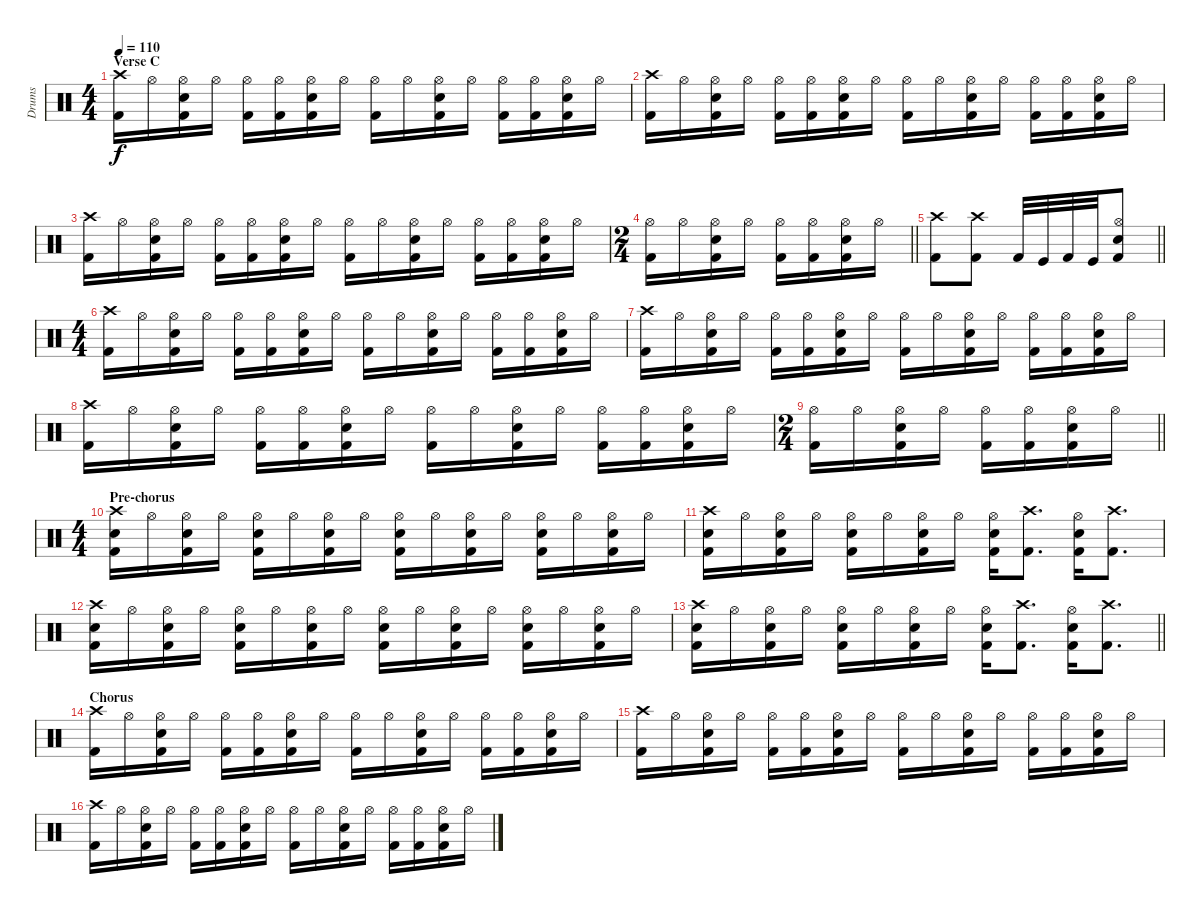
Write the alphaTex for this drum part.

\track ("Drums" "Drums") {instrument percussion}
\staff {score}
\articulation defaults
\ts (4 4)
\section ("" "Verse C")
\tempo 110
\clef neutral
\ks c
("Kick (hit) 2" "Crash high (hit)").16{dy f} "Hi-Hat (open)".16 ("Kick (hit) 2" "Snare (hit) 2" "Hi-Hat (open)").16 "Hi-Hat (open)".16 ("Kick (hit) 2" "Hi-Hat (open)").16 ("Kick (hit) 2" "Hi-Hat (open)").16 ("Kick (hit) 2" "Snare (hit) 2" "Hi-Hat (open)").16 "Hi-Hat (open)".16 ("Kick (hit) 2" "Hi-Hat (open)").16 "Hi-Hat (open)".16 ("Kick (hit) 2" "Snare (hit) 2" "Hi-Hat (open)").16 "Hi-Hat (open)".16 ("Kick (hit) 2" "Hi-Hat (open)").16 ("Kick (hit) 2" "Hi-Hat (open)").16 ("Kick (hit) 2" "Snare (hit) 2" "Hi-Hat (open)").16 "Hi-Hat (open)".16 |
("Kick (hit) 2" "Crash high (hit)").16 "Hi-Hat (open)".16 ("Kick (hit) 2" "Snare (hit) 2" "Hi-Hat (open)").16 "Hi-Hat (open)".16 ("Kick (hit) 2" "Hi-Hat (open)").16 ("Kick (hit) 2" "Hi-Hat (open)").16 ("Kick (hit) 2" "Snare (hit) 2" "Hi-Hat (open)").16 "Hi-Hat (open)".16 ("Kick (hit) 2" "Hi-Hat (open)").16 "Hi-Hat (open)".16 ("Kick (hit) 2" "Snare (hit) 2" "Hi-Hat (open)").16 "Hi-Hat (open)".16 ("Kick (hit) 2" "Hi-Hat (open)").16 ("Kick (hit) 2" "Hi-Hat (open)").16 ("Kick (hit) 2" "Snare (hit) 2" "Hi-Hat (open)").16 "Hi-Hat (open)".16 |
("Kick (hit) 2" "Crash high (hit)").16 "Hi-Hat (open)".16 ("Kick (hit) 2" "Snare (hit) 2" "Hi-Hat (open)").16 "Hi-Hat (open)".16 ("Kick (hit) 2" "Hi-Hat (open)").16 ("Kick (hit) 2" "Hi-Hat (open)").16 ("Kick (hit) 2" "Snare (hit) 2" "Hi-Hat (open)").16 "Hi-Hat (open)".16 ("Kick (hit) 2" "Hi-Hat (open)").16 "Hi-Hat (open)".16 ("Kick (hit) 2" "Snare (hit) 2" "Hi-Hat (open)").16 "Hi-Hat (open)".16 ("Kick (hit) 2" "Hi-Hat (open)").16 ("Kick (hit) 2" "Hi-Hat (open)").16 ("Kick (hit) 2" "Snare (hit) 2" "Hi-Hat (open)").16 "Hi-Hat (open)".16 |
\ts (2 4)
\barLineRight lightlight
("Kick (hit) 2" "Hi-Hat (open)").16 "Hi-Hat (open)".16 ("Kick (hit) 2" "Snare (hit) 2" "Hi-Hat (open)").16 "Hi-Hat (open)".16 ("Kick (hit) 2" "Hi-Hat (open)").16 ("Kick (hit) 2" "Hi-Hat (open)").16 ("Kick (hit) 2" "Snare (hit) 2" "Hi-Hat (open)").16 "Hi-Hat (open)".16 |
\barLineRight lightlight
("Kick (hit) 2" "Crash high (hit)").8 ("Kick (hit) 2" "Crash high (hit)").8 "Kick (hit) 2".32 "Kick (hit)".32 "Kick (hit) 2".32 "Kick (hit)".32 ("Kick (hit) 2" "Snare (hit) 2" "Hi-Hat (open)").8 |
\ts (4 4)
("Kick (hit) 2" "Crash high (hit)").16 "Hi-Hat (open)".16 ("Kick (hit) 2" "Snare (hit) 2" "Hi-Hat (open)").16 "Hi-Hat (open)".16 ("Kick (hit) 2" "Hi-Hat (open)").16 ("Kick (hit) 2" "Hi-Hat (open)").16 ("Kick (hit) 2" "Snare (hit) 2" "Hi-Hat (open)").16 "Hi-Hat (open)".16 ("Kick (hit) 2" "Hi-Hat (open)").16 "Hi-Hat (open)".16 ("Kick (hit) 2" "Snare (hit) 2" "Hi-Hat (open)").16 "Hi-Hat (open)".16 ("Kick (hit) 2" "Hi-Hat (open)").16 ("Kick (hit) 2" "Hi-Hat (open)").16 ("Kick (hit) 2" "Snare (hit) 2" "Hi-Hat (open)").16 "Hi-Hat (open)".16 |
("Kick (hit) 2" "Crash high (hit)").16 "Hi-Hat (open)".16 ("Kick (hit) 2" "Snare (hit) 2" "Hi-Hat (open)").16 "Hi-Hat (open)".16 ("Kick (hit) 2" "Hi-Hat (open)").16 ("Kick (hit) 2" "Hi-Hat (open)").16 ("Kick (hit) 2" "Snare (hit) 2" "Hi-Hat (open)").16 "Hi-Hat (open)".16 ("Kick (hit) 2" "Hi-Hat (open)").16 "Hi-Hat (open)".16 ("Kick (hit) 2" "Snare (hit) 2" "Hi-Hat (open)").16 "Hi-Hat (open)".16 ("Kick (hit) 2" "Hi-Hat (open)").16 ("Kick (hit) 2" "Hi-Hat (open)").16 ("Kick (hit) 2" "Snare (hit) 2" "Hi-Hat (open)").16 "Hi-Hat (open)".16 |
("Kick (hit) 2" "Crash high (hit)").16 "Hi-Hat (open)".16 ("Kick (hit) 2" "Snare (hit) 2" "Hi-Hat (open)").16 "Hi-Hat (open)".16 ("Kick (hit) 2" "Hi-Hat (open)").16 ("Kick (hit) 2" "Hi-Hat (open)").16 ("Kick (hit) 2" "Snare (hit) 2" "Hi-Hat (open)").16 "Hi-Hat (open)".16 ("Kick (hit) 2" "Hi-Hat (open)").16 "Hi-Hat (open)".16 ("Kick (hit) 2" "Snare (hit) 2" "Hi-Hat (open)").16 "Hi-Hat (open)".16 ("Kick (hit) 2" "Hi-Hat (open)").16 ("Kick (hit) 2" "Hi-Hat (open)").16 ("Kick (hit) 2" "Snare (hit) 2" "Hi-Hat (open)").16 "Hi-Hat (open)".16 |
\ts (2 4)
\barLineRight lightlight
("Kick (hit) 2" "Hi-Hat (open)").16 "Hi-Hat (open)".16 ("Kick (hit) 2" "Snare (hit) 2" "Hi-Hat (open)").16 "Hi-Hat (open)".16 ("Kick (hit) 2" "Hi-Hat (open)").16 ("Kick (hit) 2" "Hi-Hat (open)").16 ("Kick (hit) 2" "Snare (hit) 2" "Hi-Hat (open)").16 "Hi-Hat (open)".16 |
\ts (4 4)
\section ("" "Pre-chorus")
("Kick (hit) 2" "Snare (hit) 2" "Crash high (hit)").16 "Hi-Hat (open)".16 ("Kick (hit) 2" "Snare (hit) 2" "Hi-Hat (open)").16 "Hi-Hat (open)".16 ("Kick (hit) 2" "Snare (hit) 2" "Hi-Hat (open)").16 "Hi-Hat (open)".16 ("Kick (hit) 2" "Snare (hit) 2" "Hi-Hat (open)").16 "Hi-Hat (open)".16 ("Kick (hit) 2" "Snare (hit) 2" "Hi-Hat (open)").16 "Hi-Hat (open)".16 ("Kick (hit) 2" "Snare (hit) 2" "Hi-Hat (open)").16 "Hi-Hat (open)".16 ("Kick (hit) 2" "Snare (hit) 2" "Hi-Hat (open)").16 "Hi-Hat (open)".16 ("Kick (hit) 2" "Snare (hit) 2" "Hi-Hat (open)").16 "Hi-Hat (open)".16 |
("Kick (hit) 2" "Snare (hit) 2" "Crash high (hit)").16 "Hi-Hat (open)".16 ("Kick (hit) 2" "Snare (hit) 2" "Hi-Hat (open)").16 "Hi-Hat (open)".16 ("Kick (hit) 2" "Snare (hit) 2" "Hi-Hat (open)").16 "Hi-Hat (open)".16 ("Kick (hit) 2" "Snare (hit) 2" "Hi-Hat (open)").16 "Hi-Hat (open)".16 ("Kick (hit) 2" "Snare (hit) 2" "Hi-Hat (open)").16 ("Kick (hit) 2" "Crash high (hit)").8{d} ("Kick (hit) 2" "Snare (hit) 2" "Hi-Hat (open)").16 ("Kick (hit) 2" "Crash high (hit)").8{d} |
("Kick (hit) 2" "Snare (hit) 2" "Crash high (hit)").16 "Hi-Hat (open)".16 ("Kick (hit) 2" "Snare (hit) 2" "Hi-Hat (open)").16 "Hi-Hat (open)".16 ("Kick (hit) 2" "Snare (hit) 2" "Hi-Hat (open)").16 "Hi-Hat (open)".16 ("Kick (hit) 2" "Snare (hit) 2" "Hi-Hat (open)").16 "Hi-Hat (open)".16 ("Kick (hit) 2" "Snare (hit) 2" "Hi-Hat (open)").16 "Hi-Hat (open)".16 ("Kick (hit) 2" "Snare (hit) 2" "Hi-Hat (open)").16 "Hi-Hat (open)".16 ("Kick (hit) 2" "Snare (hit) 2" "Hi-Hat (open)").16 "Hi-Hat (open)".16 ("Kick (hit) 2" "Snare (hit) 2" "Hi-Hat (open)").16 "Hi-Hat (open)".16 |
\barLineRight lightlight
("Kick (hit) 2" "Snare (hit) 2" "Crash high (hit)").16 "Hi-Hat (open)".16 ("Kick (hit) 2" "Snare (hit) 2" "Hi-Hat (open)").16 "Hi-Hat (open)".16 ("Kick (hit) 2" "Snare (hit) 2" "Hi-Hat (open)").16 "Hi-Hat (open)".16 ("Kick (hit) 2" "Snare (hit) 2" "Hi-Hat (open)").16 "Hi-Hat (open)".16 ("Kick (hit) 2" "Snare (hit) 2" "Hi-Hat (open)").16 ("Kick (hit) 2" "Crash high (hit)").8{d} ("Kick (hit) 2" "Snare (hit) 2" "Hi-Hat (open)").16 ("Kick (hit) 2" "Crash high (hit)").8{d} |
\section ("" "Chorus")
("Kick (hit) 2" "Crash high (hit)").16 "Hi-Hat (open)".16 ("Kick (hit) 2" "Snare (hit) 2" "Hi-Hat (open)").16 "Hi-Hat (open)".16 ("Kick (hit) 2" "Hi-Hat (open)").16 ("Kick (hit) 2" "Hi-Hat (open)").16 ("Kick (hit) 2" "Snare (hit) 2" "Hi-Hat (open)").16 "Hi-Hat (open)".16 ("Kick (hit) 2" "Hi-Hat (open)").16 "Hi-Hat (open)".16 ("Kick (hit) 2" "Snare (hit) 2" "Hi-Hat (open)").16 "Hi-Hat (open)".16 ("Kick (hit) 2" "Hi-Hat (open)").16 ("Kick (hit) 2" "Hi-Hat (open)").16 ("Kick (hit) 2" "Snare (hit) 2" "Hi-Hat (open)").16 "Hi-Hat (open)".16 |
("Kick (hit) 2" "Crash high (hit)").16 "Hi-Hat (open)".16 ("Kick (hit) 2" "Snare (hit) 2" "Hi-Hat (open)").16 "Hi-Hat (open)".16 ("Kick (hit) 2" "Hi-Hat (open)").16 ("Kick (hit) 2" "Hi-Hat (open)").16 ("Kick (hit) 2" "Snare (hit) 2" "Hi-Hat (open)").16 "Hi-Hat (open)".16 ("Kick (hit) 2" "Hi-Hat (open)").16 "Hi-Hat (open)".16 ("Kick (hit) 2" "Snare (hit) 2" "Hi-Hat (open)").16 "Hi-Hat (open)".16 ("Kick (hit) 2" "Hi-Hat (open)").16 ("Kick (hit) 2" "Hi-Hat (open)").16 ("Kick (hit) 2" "Snare (hit) 2" "Hi-Hat (open)").16 "Hi-Hat (open)".16 |
("Kick (hit) 2" "Crash high (hit)").16 "Hi-Hat (open)".16 ("Kick (hit) 2" "Snare (hit) 2" "Hi-Hat (open)").16 "Hi-Hat (open)".16 ("Kick (hit) 2" "Hi-Hat (open)").16 ("Kick (hit) 2" "Hi-Hat (open)").16 ("Kick (hit) 2" "Snare (hit) 2" "Hi-Hat (open)").16 "Hi-Hat (open)".16 ("Kick (hit) 2" "Hi-Hat (open)").16 "Hi-Hat (open)".16 ("Kick (hit) 2" "Snare (hit) 2" "Hi-Hat (open)").16 "Hi-Hat (open)".16 ("Kick (hit) 2" "Hi-Hat (open)").16 ("Kick (hit) 2" "Hi-Hat (open)").16 ("Kick (hit) 2" "Snare (hit) 2" "Hi-Hat (open)").16 "Hi-Hat (open)".16
